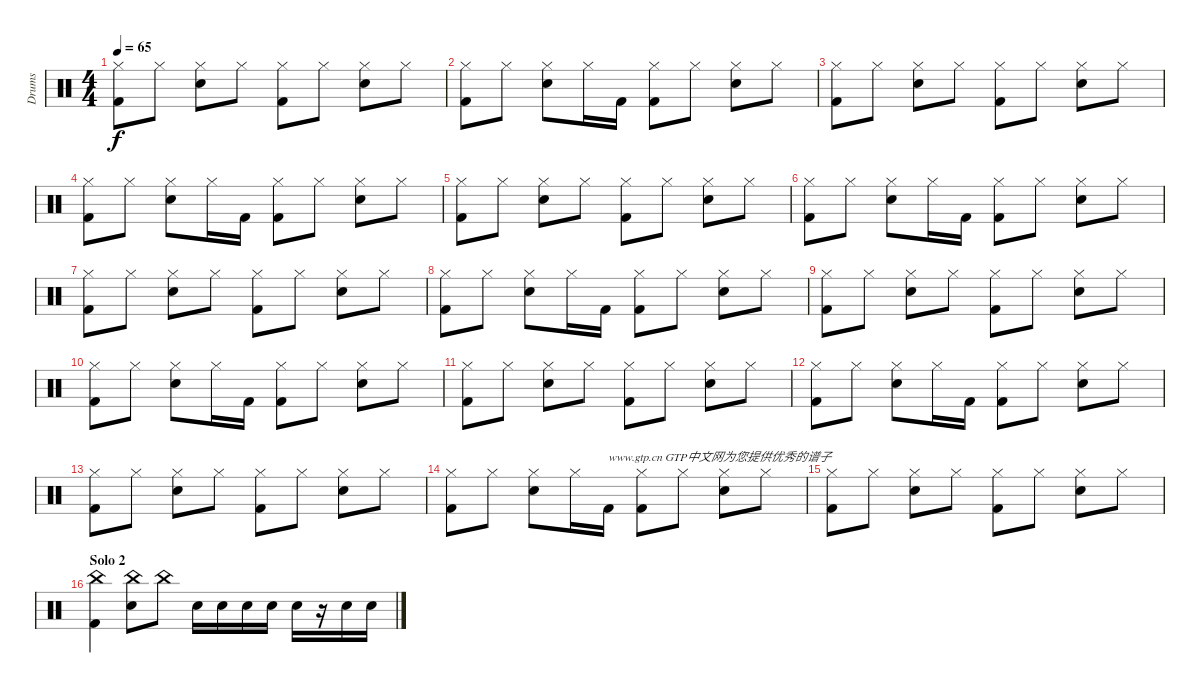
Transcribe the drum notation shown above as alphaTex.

\track ("Drums" "Drums") {instrument percussion}
\staff {score}
\articulation defaults
\ts (4 4)
\tempo 65
\clef neutral
\ks c
("Hi-Hat (closed)" "Kick (hit) 2").8{dy f} "Hi-Hat (closed)".8 ("Hi-Hat (closed)" "Snare (hit) 2").8 "Hi-Hat (closed)".8 ("Hi-Hat (closed)" "Kick (hit) 2").8 "Hi-Hat (closed)".8 ("Hi-Hat (closed)" "Snare (hit) 2").8 "Hi-Hat (closed)".8 |
("Hi-Hat (closed)" "Kick (hit) 2").8 "Hi-Hat (closed)".8 ("Hi-Hat (closed)" "Snare (hit) 2").8 "Hi-Hat (closed)".16 "Kick (hit) 2".16 ("Hi-Hat (closed)" "Kick (hit) 2").8 "Hi-Hat (closed)".8 ("Hi-Hat (closed)" "Snare (hit) 2").8 "Hi-Hat (closed)".8 |
("Hi-Hat (closed)" "Kick (hit) 2").8 "Hi-Hat (closed)".8 ("Hi-Hat (closed)" "Snare (hit) 2").8 "Hi-Hat (closed)".8 ("Hi-Hat (closed)" "Kick (hit) 2").8 "Hi-Hat (closed)".8 ("Hi-Hat (closed)" "Snare (hit) 2").8 "Hi-Hat (closed)".8 |
("Hi-Hat (closed)" "Kick (hit) 2").8 "Hi-Hat (closed)".8 ("Hi-Hat (closed)" "Snare (hit) 2").8 "Hi-Hat (closed)".16 "Kick (hit) 2".16 ("Hi-Hat (closed)" "Kick (hit) 2").8 "Hi-Hat (closed)".8 ("Hi-Hat (closed)" "Snare (hit) 2").8 "Hi-Hat (closed)".8 |
("Hi-Hat (closed)" "Kick (hit) 2").8 "Hi-Hat (closed)".8 ("Hi-Hat (closed)" "Snare (hit) 2").8 "Hi-Hat (closed)".8 ("Hi-Hat (closed)" "Kick (hit) 2").8 "Hi-Hat (closed)".8 ("Hi-Hat (closed)" "Snare (hit) 2").8 "Hi-Hat (closed)".8 |
("Hi-Hat (closed)" "Kick (hit) 2").8 "Hi-Hat (closed)".8 ("Hi-Hat (closed)" "Snare (hit) 2").8 "Hi-Hat (closed)".16 "Kick (hit) 2".16 ("Hi-Hat (closed)" "Kick (hit) 2").8 "Hi-Hat (closed)".8 ("Hi-Hat (closed)" "Snare (hit) 2").8 "Hi-Hat (closed)".8 |
("Hi-Hat (closed)" "Kick (hit) 2").8 "Hi-Hat (closed)".8 ("Hi-Hat (closed)" "Snare (hit) 2").8 "Hi-Hat (closed)".8 ("Hi-Hat (closed)" "Kick (hit) 2").8 "Hi-Hat (closed)".8 ("Hi-Hat (closed)" "Snare (hit) 2").8 "Hi-Hat (closed)".8 |
("Hi-Hat (closed)" "Kick (hit) 2").8 "Hi-Hat (closed)".8 ("Hi-Hat (closed)" "Snare (hit) 2").8 "Hi-Hat (closed)".16 "Kick (hit) 2".16 ("Hi-Hat (closed)" "Kick (hit) 2").8 "Hi-Hat (closed)".8 ("Hi-Hat (closed)" "Snare (hit) 2").8 "Hi-Hat (closed)".8 |
("Hi-Hat (closed)" "Kick (hit) 2").8 "Hi-Hat (closed)".8 ("Hi-Hat (closed)" "Snare (hit) 2").8 "Hi-Hat (closed)".8 ("Hi-Hat (closed)" "Kick (hit) 2").8 "Hi-Hat (closed)".8 ("Hi-Hat (closed)" "Snare (hit) 2").8 "Hi-Hat (closed)".8 |
("Hi-Hat (closed)" "Kick (hit) 2").8 "Hi-Hat (closed)".8 ("Hi-Hat (closed)" "Snare (hit) 2").8 "Hi-Hat (closed)".16 "Kick (hit) 2".16 ("Hi-Hat (closed)" "Kick (hit) 2").8 "Hi-Hat (closed)".8 ("Hi-Hat (closed)" "Snare (hit) 2").8 "Hi-Hat (closed)".8 |
("Hi-Hat (closed)" "Kick (hit) 2").8 "Hi-Hat (closed)".8 ("Hi-Hat (closed)" "Snare (hit) 2").8 "Hi-Hat (closed)".8 ("Hi-Hat (closed)" "Kick (hit) 2").8 "Hi-Hat (closed)".8 ("Hi-Hat (closed)" "Snare (hit) 2").8 "Hi-Hat (closed)".8 |
("Hi-Hat (closed)" "Kick (hit) 2").8 "Hi-Hat (closed)".8 ("Hi-Hat (closed)" "Snare (hit) 2").8 "Hi-Hat (closed)".16 "Kick (hit) 2".16 ("Hi-Hat (closed)" "Kick (hit) 2").8 "Hi-Hat (closed)".8 ("Hi-Hat (closed)" "Snare (hit) 2").8 "Hi-Hat (closed)".8 |
("Hi-Hat (closed)" "Kick (hit) 2").8 "Hi-Hat (closed)".8 ("Hi-Hat (closed)" "Snare (hit) 2").8 "Hi-Hat (closed)".8 ("Hi-Hat (closed)" "Kick (hit) 2").8 "Hi-Hat (closed)".8 ("Hi-Hat (closed)" "Snare (hit) 2").8 "Hi-Hat (closed)".8 |
("Hi-Hat (closed)" "Kick (hit) 2").8 "Hi-Hat (closed)".8 ("Hi-Hat (closed)" "Snare (hit) 2").8 "Hi-Hat (closed)".16 "Kick (hit) 2".16{txt "www.gtp.cn GTP中文网为您提供优秀的谱子"} ("Hi-Hat (closed)" "Kick (hit) 2").8 "Hi-Hat (closed)".8 ("Hi-Hat (closed)" "Snare (hit) 2").8 "Hi-Hat (closed)".8 |
("Hi-Hat (closed)" "Kick (hit) 2").8 "Hi-Hat (closed)".8 ("Hi-Hat (closed)" "Snare (hit) 2").8 "Hi-Hat (closed)".8 ("Hi-Hat (closed)" "Kick (hit) 2").8 "Hi-Hat (closed)".8 ("Hi-Hat (closed)" "Snare (hit) 2").8 "Hi-Hat (closed)".8 |
\section ("" "Solo 2")
("China (hit)" "Kick (hit) 2").4 ("China (hit)" "Snare (hit) 2").8 "China (hit)".8 "Snare (hit) 2".16 "Snare (hit) 2".16 "Snare (hit) 2".16 "Snare (hit) 2".16 "Snare (hit) 2".16 r.16 "Snare (hit) 2".16 "Snare (hit) 2".16
